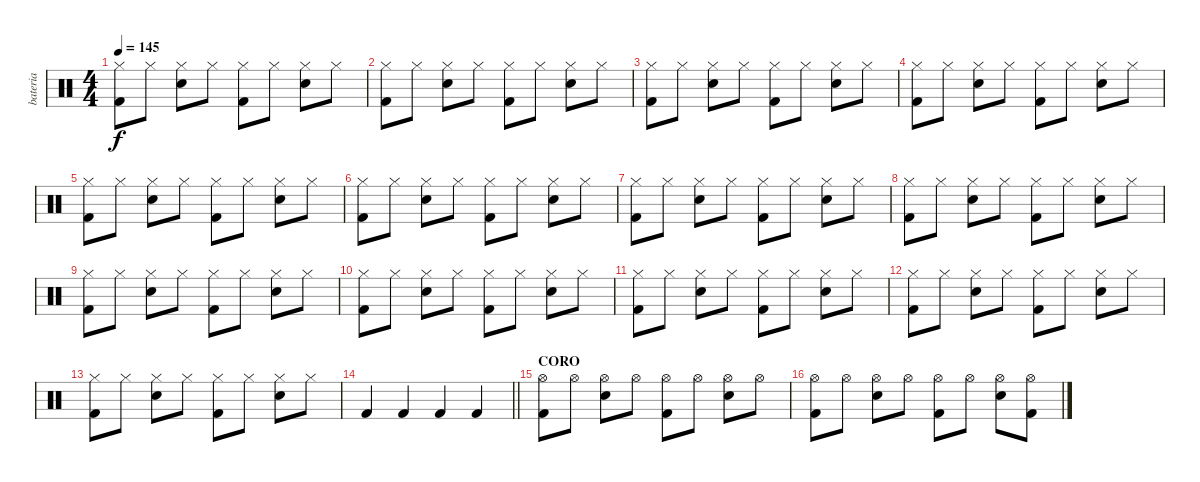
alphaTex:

\track ("bateria" "bateria") {instrument percussion}
\staff {score}
\articulation defaults
\ts (4 4)
\tempo 145
\clef neutral
\ks c
("Hi-Hat (closed)" "Kick (hit) 2").8{dy f} "Hi-Hat (closed)".8 ("Hi-Hat (closed)" "Electric Snare (hit)").8 "Hi-Hat (closed)".8 ("Hi-Hat (closed)" "Kick (hit) 2").8 "Hi-Hat (closed)".8 ("Hi-Hat (closed)" "Electric Snare (hit)").8 "Hi-Hat (closed)".8 |
("Hi-Hat (closed)" "Kick (hit) 2").8 "Hi-Hat (closed)".8 ("Hi-Hat (closed)" "Electric Snare (hit)").8 "Hi-Hat (closed)".8 ("Hi-Hat (closed)" "Kick (hit) 2").8 "Hi-Hat (closed)".8 ("Hi-Hat (closed)" "Electric Snare (hit)").8 "Hi-Hat (closed)".8 |
("Hi-Hat (closed)" "Kick (hit) 2").8 "Hi-Hat (closed)".8 ("Hi-Hat (closed)" "Electric Snare (hit)").8 "Hi-Hat (closed)".8 ("Hi-Hat (closed)" "Kick (hit) 2").8 "Hi-Hat (closed)".8 ("Hi-Hat (closed)" "Electric Snare (hit)").8 "Hi-Hat (closed)".8 |
("Hi-Hat (closed)" "Kick (hit) 2").8 "Hi-Hat (closed)".8 ("Hi-Hat (closed)" "Electric Snare (hit)").8 "Hi-Hat (closed)".8 ("Hi-Hat (closed)" "Kick (hit) 2").8 "Hi-Hat (closed)".8 ("Hi-Hat (closed)" "Electric Snare (hit)").8 "Hi-Hat (closed)".8 |
("Hi-Hat (closed)" "Kick (hit) 2").8 "Hi-Hat (closed)".8 ("Hi-Hat (closed)" "Electric Snare (hit)").8 "Hi-Hat (closed)".8 ("Hi-Hat (closed)" "Kick (hit) 2").8 "Hi-Hat (closed)".8 ("Hi-Hat (closed)" "Electric Snare (hit)").8 "Hi-Hat (closed)".8 |
("Hi-Hat (closed)" "Kick (hit) 2").8 "Hi-Hat (closed)".8 ("Hi-Hat (closed)" "Electric Snare (hit)").8 "Hi-Hat (closed)".8 ("Hi-Hat (closed)" "Kick (hit) 2").8 "Hi-Hat (closed)".8 ("Hi-Hat (closed)" "Electric Snare (hit)").8 "Hi-Hat (closed)".8 |
("Hi-Hat (closed)" "Kick (hit) 2").8 "Hi-Hat (closed)".8 ("Hi-Hat (closed)" "Electric Snare (hit)").8 "Hi-Hat (closed)".8 ("Hi-Hat (closed)" "Kick (hit) 2").8 "Hi-Hat (closed)".8 ("Hi-Hat (closed)" "Electric Snare (hit)").8 "Hi-Hat (closed)".8 |
("Hi-Hat (closed)" "Kick (hit) 2").8 "Hi-Hat (closed)".8 ("Hi-Hat (closed)" "Electric Snare (hit)").8 "Hi-Hat (closed)".8 ("Hi-Hat (closed)" "Kick (hit) 2").8 "Hi-Hat (closed)".8 ("Hi-Hat (closed)" "Electric Snare (hit)").8 "Hi-Hat (closed)".8 |
("Hi-Hat (closed)" "Kick (hit) 2").8 "Hi-Hat (closed)".8 ("Hi-Hat (closed)" "Electric Snare (hit)").8 "Hi-Hat (closed)".8 ("Hi-Hat (closed)" "Kick (hit) 2").8 "Hi-Hat (closed)".8 ("Hi-Hat (closed)" "Electric Snare (hit)").8 "Hi-Hat (closed)".8 |
("Hi-Hat (closed)" "Kick (hit) 2").8 "Hi-Hat (closed)".8 ("Hi-Hat (closed)" "Electric Snare (hit)").8 "Hi-Hat (closed)".8 ("Hi-Hat (closed)" "Kick (hit) 2").8 "Hi-Hat (closed)".8 ("Hi-Hat (closed)" "Electric Snare (hit)").8 "Hi-Hat (closed)".8 |
("Hi-Hat (closed)" "Kick (hit) 2").8 "Hi-Hat (closed)".8 ("Hi-Hat (closed)" "Electric Snare (hit)").8 "Hi-Hat (closed)".8 ("Hi-Hat (closed)" "Kick (hit) 2").8 "Hi-Hat (closed)".8 ("Hi-Hat (closed)" "Electric Snare (hit)").8 "Hi-Hat (closed)".8 |
("Hi-Hat (closed)" "Kick (hit) 2").8 "Hi-Hat (closed)".8 ("Hi-Hat (closed)" "Electric Snare (hit)").8 "Hi-Hat (closed)".8 ("Hi-Hat (closed)" "Kick (hit) 2").8 "Hi-Hat (closed)".8 ("Hi-Hat (closed)" "Electric Snare (hit)").8 "Hi-Hat (closed)".8 |
("Hi-Hat (closed)" "Kick (hit) 2").8 "Hi-Hat (closed)".8 ("Hi-Hat (closed)" "Electric Snare (hit)").8 "Hi-Hat (closed)".8 ("Hi-Hat (closed)" "Kick (hit) 2").8 "Hi-Hat (closed)".8 ("Hi-Hat (closed)" "Electric Snare (hit)").8 "Hi-Hat (closed)".8 |
\barLineRight lightlight "Kick (hit) 2".4 "Kick (hit) 2".4 "Kick (hit) 2".4 "Kick (hit) 2".4
|
\section ("" "CORO")
("Hi-Hat (open)" "Kick (hit) 2").8 "Hi-Hat (open)".8 ("Hi-Hat (open)" "Electric Snare (hit)").8 "Hi-Hat (open)".8 ("Hi-Hat (open)" "Kick (hit) 2").8 "Hi-Hat (open)".8 ("Hi-Hat (open)" "Electric Snare (hit)").8 "Hi-Hat (open)".8 |
("Hi-Hat (open)" "Kick (hit) 2").8 "Hi-Hat (open)".8 ("Hi-Hat (open)" "Electric Snare (hit)").8 "Hi-Hat (open)".8 ("Hi-Hat (open)" "Kick (hit) 2").8 "Hi-Hat (open)".8 ("Hi-Hat (open)" "Electric Snare (hit)").8 ("Hi-Hat (open)" "Kick (hit) 2").8
